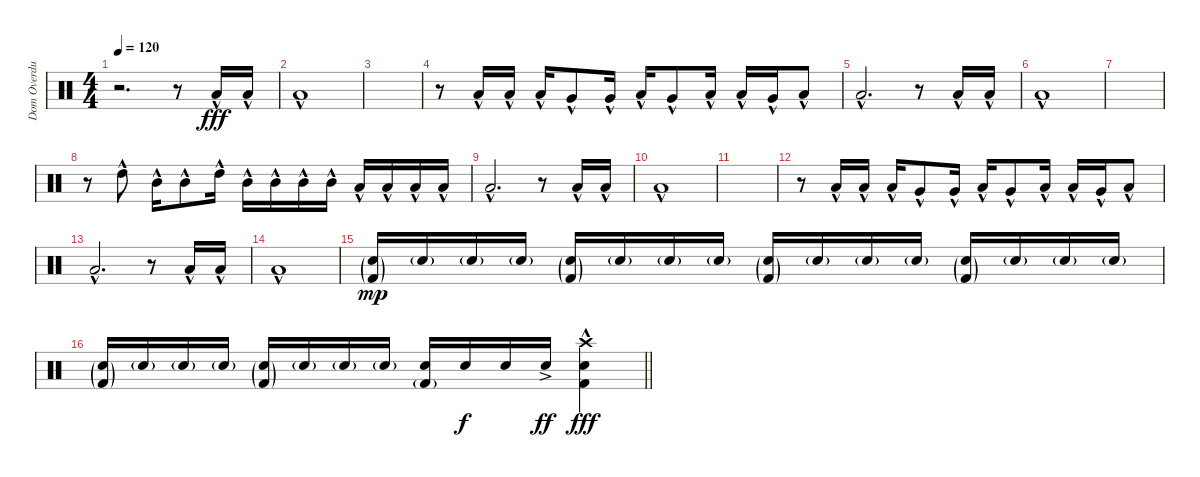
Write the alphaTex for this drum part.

\track ("Dom Overdub" "Dom Overdu") {instrument percussion}
\staff {score}
\articulation defaults
\ts (4 4)
\section ("" "")
\tempo 120
\clef neutral
\ks c
r.2{d dy fff} r.8 "Low Floor Tom (hit)"{hac}.16 "Low Floor Tom (hit)"{hac}.16 |
"Low Floor Tom (hit)"{hac}.1 |
|
r.8 "Low Tom (hit)"{hac}.16 "Low Tom (hit)"{hac}.16 "Low Tom (hit)"{hac}.16 "Very Low Tom (hit)"{hac}.8 "Very Low Tom (hit)"{hac}.16 "Low Tom (hit)"{hac}.16 "Very Low Tom (hit)"{hac}.8 "Low Tom (hit)"{hac}.16 "Low Tom (hit)"{hac}.16 "Very Low Tom (hit)"{hac}.16 "Low Floor Tom (hit)"{hac}.8 |
"Low Floor Tom (hit)"{hac}.2{d} r.8 "Low Floor Tom (hit)"{hac}.16 "Low Floor Tom (hit)"{hac}.16 |
"Low Floor Tom (hit)"{hac}.1 |
|
r.8 "High Tom (hit)"{hac}.8 "Mid Tom (hit)"{hac}.16 "Mid Tom (hit)"{hac}.8 "High Tom (hit)"{hac}.16 "Mid Tom (hit)"{hac}.16 "Mid Tom (hit)"{hac}.16 "Mid Tom (hit)"{hac}.16 "Mid Tom (hit)"{hac}.16 "Low Tom (hit)"{hac}.16 "Low Tom (hit)"{hac}.16 "Low Tom (hit)"{hac}.16 "Low Tom (hit)"{hac}.16 |
"Low Floor Tom (hit)"{hac}.2{d} r.8 "Low Floor Tom (hit)"{hac}.16 "Low Floor Tom (hit)"{hac}.16 |
"Low Floor Tom (hit)"{hac}.1 |
|
r.8 "Low Tom (hit)"{hac}.16 "Low Tom (hit)"{hac}.16 "Low Tom (hit)"{hac}.16 "Very Low Tom (hit)"{hac}.8 "Very Low Tom (hit)"{hac}.16 "Low Tom (hit)"{hac}.16 "Very Low Tom (hit)"{hac}.8 "Low Tom (hit)"{hac}.16 "Low Tom (hit)"{hac}.16 "Very Low Tom (hit)"{hac}.16 "Low Floor Tom (hit)"{hac}.8 |
"Low Floor Tom (hit)"{hac}.2{d} r.8 "Low Floor Tom (hit)"{hac}.16 "Low Floor Tom (hit)"{hac}.16 |
"Low Floor Tom (hit)"{hac}.1 |
("Electric Snare (hit)"{g} "Kick (hit) 2"{g}).16{dy mp} "Electric Snare (hit)"{g}.16 "Electric Snare (hit)"{g}.16 "Electric Snare (hit)"{g}.16 ("Electric Snare (hit)"{g} "Kick (hit) 2"{g}).16 "Electric Snare (hit)"{g}.16 "Electric Snare (hit)"{g}.16 "Electric Snare (hit)"{g}.16 ("Electric Snare (hit)"{g} "Kick (hit) 2"{g}).16 "Electric Snare (hit)"{g}.16 "Electric Snare (hit)"{g}.16 "Electric Snare (hit)"{g}.16 ("Electric Snare (hit)"{g} "Kick (hit) 2"{g}).16 "Electric Snare (hit)"{g}.16 "Electric Snare (hit)"{g}.16 "Electric Snare (hit)"{g}.16 |
\barLineRight lightlight
("Electric Snare (hit)"{g} "Kick (hit) 2"{g}).16 "Electric Snare (hit)"{g}.16 "Electric Snare (hit)"{g}.16 "Electric Snare (hit)"{g}.16 ("Electric Snare (hit)"{g} "Kick (hit) 2"{g}).16 "Electric Snare (hit)"{g}.16 "Electric Snare (hit)"{g}.16 "Electric Snare (hit)"{g}.16 ("Electric Snare (hit)" "Kick (hit) 2"{g}).16 "Electric Snare (hit)".16{dy f} "Electric Snare (hit)".16 "Electric Snare (hit)"{ac}.16{dy ff} ("Crash high (hit)"{hac} "Electric Snare (hit)"{hac} "Kick (hit) 2"{hac}).4{dy fff}
